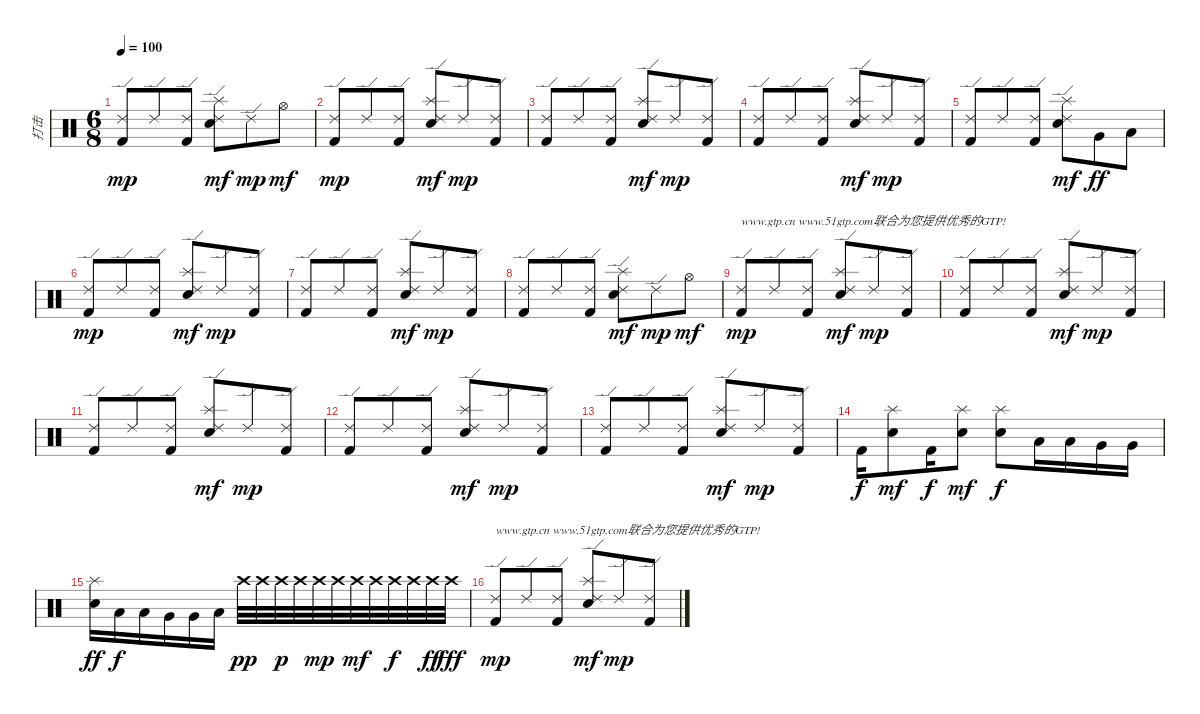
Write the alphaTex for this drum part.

\track ("打击" "打击") {instrument percussion}
\staff {score}
\articulation defaults
\ts (6 8)
\tempo 100
\clef neutral
\ks c
("Ride (edge) 2" "Kick (hit) 2").8{dy mp} "Ride (edge) 2".8 ("Ride (edge) 2" "Kick (hit) 2").8 ("Ride (edge) 2" "Splash (hit)" "Electric Snare (hit)").8{dy mf} "Ride (edge) 2".8{dy mp} "Hi-Hat (open)".8{dy mf} |
("Ride (edge) 2" "Kick (hit) 2").8{dy mp} "Ride (edge) 2".8 ("Ride (edge) 2" "Kick (hit) 2").8 ("Ride (edge) 2" "Splash (hit)" "Electric Snare (hit)").8{dy mf} "Ride (edge) 2".8{dy mp} ("Ride (edge) 2" "Kick (hit) 2").8 |
("Ride (edge) 2" "Kick (hit) 2").8 "Ride (edge) 2".8 ("Ride (edge) 2" "Kick (hit) 2").8 ("Ride (edge) 2" "Splash (hit)" "Electric Snare (hit)").8{dy mf} "Ride (edge) 2".8{dy mp} ("Ride (edge) 2" "Kick (hit) 2").8 |
("Ride (edge) 2" "Kick (hit) 2").8 "Ride (edge) 2".8 ("Ride (edge) 2" "Kick (hit) 2").8 ("Ride (edge) 2" "Splash (hit)" "Electric Snare (hit)").8{dy mf} "Ride (edge) 2".8{dy mp} ("Ride (edge) 2" "Kick (hit) 2").8 |
("Ride (edge) 2" "Kick (hit) 2").8 "Ride (edge) 2".8 ("Ride (edge) 2" "Kick (hit) 2").8 ("Ride (edge) 2" "Splash (hit)" "Electric Snare (hit)").8{dy mf} "Very Low Tom (hit)".8{dy ff} "Low Floor Tom (hit)".8 |
("Ride (edge) 2" "Kick (hit) 2").8{dy mp} "Ride (edge) 2".8 ("Ride (edge) 2" "Kick (hit) 2").8 ("Ride (edge) 2" "Splash (hit)" "Electric Snare (hit)").8{dy mf} "Ride (edge) 2".8{dy mp} ("Ride (edge) 2" "Kick (hit) 2").8 |
("Ride (edge) 2" "Kick (hit) 2").8 "Ride (edge) 2".8 ("Ride (edge) 2" "Kick (hit) 2").8 ("Ride (edge) 2" "Splash (hit)" "Electric Snare (hit)").8{dy mf} "Ride (edge) 2".8{dy mp} ("Ride (edge) 2" "Kick (hit) 2").8 |
("Ride (edge) 2" "Kick (hit) 2").8 "Ride (edge) 2".8 ("Ride (edge) 2" "Kick (hit) 2").8 ("Ride (edge) 2" "Splash (hit)" "Electric Snare (hit)").8{dy mf} "Ride (edge) 2".8{dy mp} "Hi-Hat (open)".8{dy mf} |
("Ride (edge) 2" "Kick (hit) 2").8{txt "www.gtp.cn www.51gtp.com联合为您提供优秀的GTP!" dy mp} "Ride (edge) 2".8 ("Ride (edge) 2" "Kick (hit) 2").8 ("Ride (edge) 2" "Splash (hit)" "Electric Snare (hit)").8{dy mf} "Ride (edge) 2".8{dy mp} ("Ride (edge) 2" "Kick (hit) 2").8 |
("Ride (edge) 2" "Kick (hit) 2").8 "Ride (edge) 2".8 ("Ride (edge) 2" "Kick (hit) 2").8 ("Ride (edge) 2" "Splash (hit)" "Electric Snare (hit)").8{dy mf} "Ride (edge) 2".8{dy mp} ("Ride (edge) 2" "Kick (hit) 2").8 |
("Ride (edge) 2" "Kick (hit) 2").8 "Ride (edge) 2".8 ("Ride (edge) 2" "Kick (hit) 2").8 ("Ride (edge) 2" "Splash (hit)" "Electric Snare (hit)").8{dy mf} "Ride (edge) 2".8{dy mp} ("Ride (edge) 2" "Kick (hit) 2").8 |
("Ride (edge) 2" "Kick (hit) 2").8 "Ride (edge) 2".8 ("Ride (edge) 2" "Kick (hit) 2").8 ("Ride (edge) 2" "Splash (hit)" "Electric Snare (hit)").8{dy mf} "Ride (edge) 2".8{dy mp} ("Ride (edge) 2" "Kick (hit) 2").8 |
("Ride (edge) 2" "Kick (hit) 2").8 "Ride (edge) 2".8 ("Ride (edge) 2" "Kick (hit) 2").8 ("Ride (edge) 2" "Splash (hit)" "Electric Snare (hit)").8{dy mf} "Ride (edge) 2".8{dy mp} ("Ride (edge) 2" "Kick (hit) 2").8 |
"Kick (hit) 2".16{dy f} ("Splash (hit)" "Electric Snare (hit)").8{dy mf} "Kick (hit) 2".16{dy f} ("Splash (hit)" "Electric Snare (hit)").8{dy mf} ("Splash (hit)" "Electric Snare (hit)").8{dy f} "Low Tom (hit)".16 "Low Tom (hit)".16 "Very Low Tom (hit)".16 "Very Low Tom (hit)".16 |
("Splash (hit)" "Electric Snare (hit)").16{dy ff} "Low Tom (hit)".16{dy f} "Low Tom (hit)".16 "Very Low Tom (hit)".16 "Very Low Tom (hit)".16 "Low Floor Tom (hit)".16 "Crash high (hit)".32{dy pp} "Crash high (hit)".32 "Crash high (hit)".32{dy p} "Crash high (hit)".32 "Crash high (hit)".32{dy mp} "Crash high (hit)".32 "Crash high (hit)".32{dy mf} "Crash high (hit)".32 "Crash high (hit)".32{dy f} "Crash high (hit)".32 "Crash high (hit)".32{dy ff} "Crash high (hit)".32{dy fff} |
("Ride (edge) 2" "Kick (hit) 2").8{txt "www.gtp.cn www.51gtp.com联合为您提供优秀的GTP!" dy mp} "Ride (edge) 2".8 ("Ride (edge) 2" "Kick (hit) 2").8 ("Ride (edge) 2" "Splash (hit)" "Electric Snare (hit)").8{dy mf} "Ride (edge) 2".8{dy mp} ("Ride (edge) 2" "Kick (hit) 2").8
